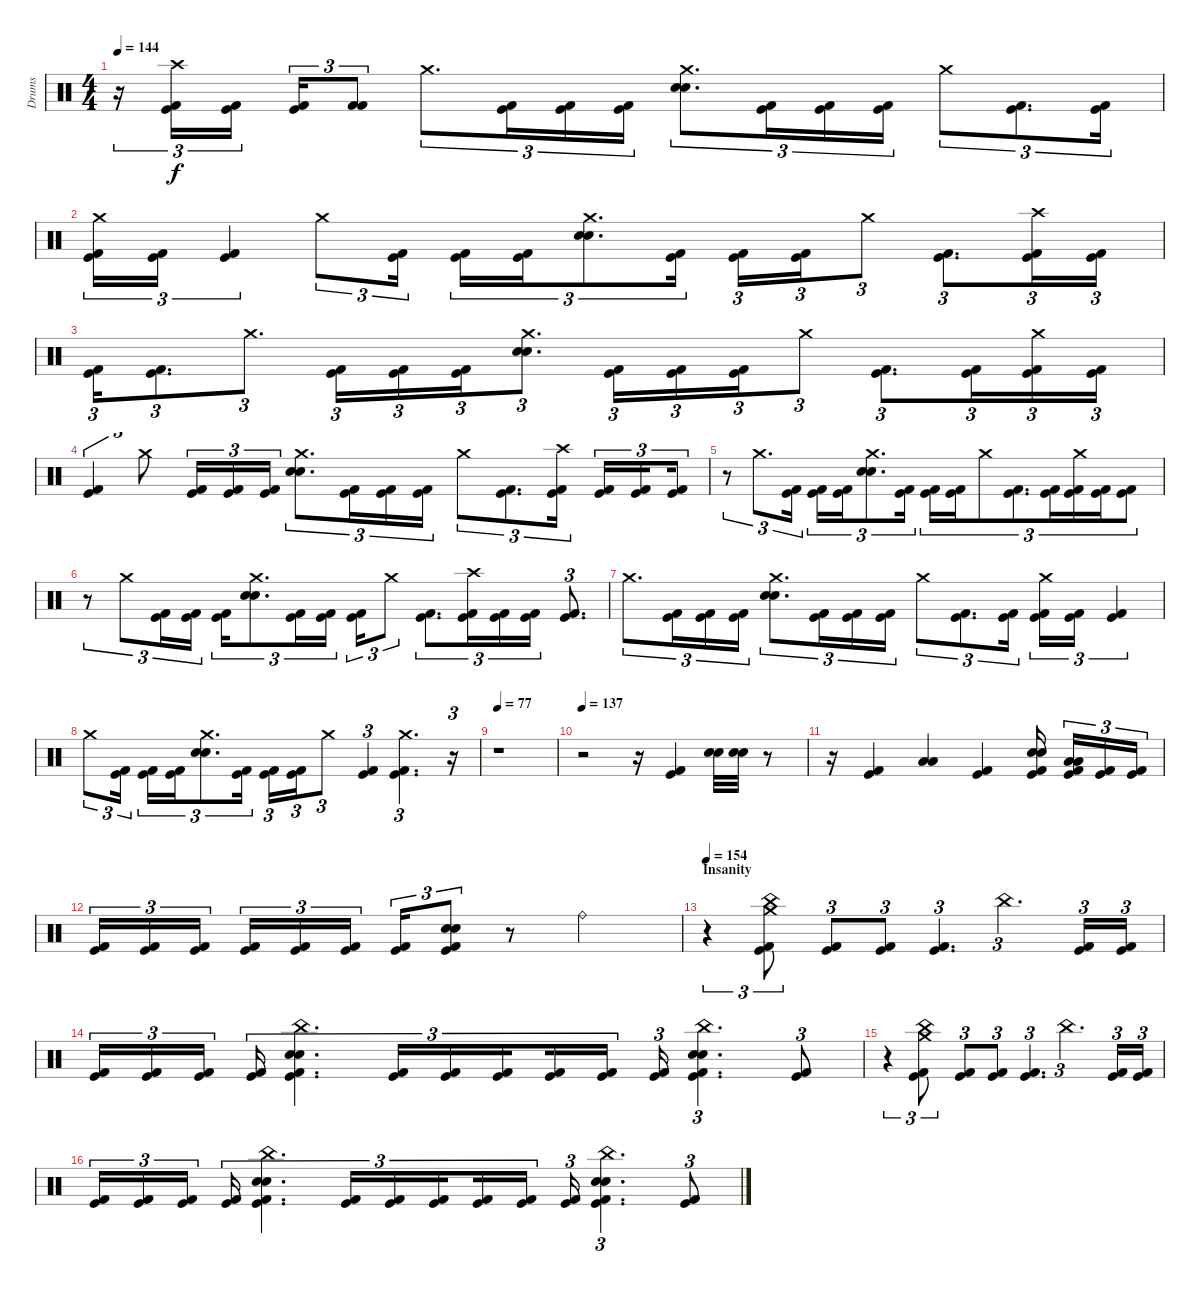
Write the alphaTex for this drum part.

\track ("Drums" "Drums") {instrument percussion}
\staff {score}
\articulation defaults
\ts (4 4)
\tempo 144
\clef neutral
\ks c
r.16{tu (3 2) dy f} ("Crash high (hit)" "Kick (hit) 2" "Kick (hit)").16{tu (3 2)} ("Kick (hit) 2" "Kick (hit)").16{tu (3 2) beam splitsecondary} ("Kick (hit) 2" "Kick (hit)").16{tu (3 2)} ("Kick (hit) 2" "Kick (hit) 2").8{tu (3 2)} "Crash medium (hit)".8{d tu (3 2)} ("Kick (hit) 2" "Kick (hit)").16{tu (3 2)} ("Kick (hit) 2" "Kick (hit)").16{tu (3 2)} ("Kick (hit) 2" "Kick (hit)").16{tu (3 2)} ("Crash medium (hit)" "Electric Snare (hit)" "Electric Snare (hit)").8{d tu (3 2)} ("Kick (hit) 2" "Kick (hit)").16{tu (3 2)} ("Kick (hit) 2" "Kick (hit)").16{tu (3 2)} ("Kick (hit) 2" "Kick (hit)").16{tu (3 2)} "Crash medium (hit)".8{tu (3 2)} ("Kick (hit) 2" "Kick (hit)").8{d tu (3 2)} ("Kick (hit) 2" "Kick (hit)").16{tu (3 2)} |
("Crash medium (hit)" "Kick (hit) 2" "Kick (hit)").16{tu (3 2)} ("Kick (hit) 2" "Kick (hit)").16{tu (3 2)} ("Kick (hit) 2" "Kick (hit)").4{tu (3 2)} "Crash medium (hit)".8{tu (3 2)} ("Kick (hit) 2" "Kick (hit)").16{tu (3 2) beam splitsecondary} ("Kick (hit) 2" "Kick (hit)").16{tu (3 2)} ("Kick (hit) 2" "Kick (hit)").16{tu (3 2)} ("Crash medium (hit)" "Electric Snare (hit)" "Electric Snare (hit)").8{d tu (3 2)} ("Kick (hit) 2" "Kick (hit)").16{tu (3 2)} ("Kick (hit) 2" "Kick (hit)").16{tu (3 2)} ("Kick (hit) 2" "Kick (hit)").16{tu (3 2)} "Crash medium (hit)".8{tu (3 2)} ("Kick (hit) 2" "Kick (hit)").8{d tu (3 2)} ("Crash high (hit)" "Kick (hit) 2" "Kick (hit)").16{tu (3 2)} ("Kick (hit) 2" "Kick (hit)").16{tu (3 2)} |
("Kick (hit) 2" "Kick (hit)").16{tu (3 2)} ("Kick (hit) 2" "Kick (hit)").8{d tu (3 2)} "Crash medium (hit)".8{d tu (3 2)} ("Kick (hit) 2" "Kick (hit)").16{tu (3 2)} ("Kick (hit) 2" "Kick (hit)").16{tu (3 2)} ("Kick (hit) 2" "Kick (hit)").16{tu (3 2)} ("Crash medium (hit)" "Electric Snare (hit)" "Electric Snare (hit)").8{d tu (3 2)} ("Kick (hit) 2" "Kick (hit)").16{tu (3 2)} ("Kick (hit) 2" "Kick (hit)").16{tu (3 2)} ("Kick (hit) 2" "Kick (hit)").16{tu (3 2)} "Crash medium (hit)".8{tu (3 2)} ("Kick (hit) 2" "Kick (hit)").8{d tu (3 2)} ("Kick (hit) 2" "Kick (hit)").16{tu (3 2)} ("Crash medium (hit)" "Kick (hit) 2" "Kick (hit)").16{tu (3 2)} ("Kick (hit) 2" "Kick (hit)").16{tu (3 2)} |
("Kick (hit) 2" "Kick (hit)").4{tu (3 2)} "Crash medium (hit)".8{tu (3 2)} ("Kick (hit) 2" "Kick (hit)").16{tu (3 2)} ("Kick (hit) 2" "Kick (hit)").16{tu (3 2)} ("Kick (hit) 2" "Kick (hit)").16{tu (3 2)} ("Crash medium (hit)" "Electric Snare (hit)" "Electric Snare (hit)").8{d tu (3 2)} ("Kick (hit) 2" "Kick (hit)").16{tu (3 2)} ("Kick (hit) 2" "Kick (hit)").16{tu (3 2)} ("Kick (hit) 2" "Kick (hit)").16{tu (3 2)} "Crash medium (hit)".8{tu (3 2)} ("Kick (hit) 2" "Kick (hit)").8{d tu (3 2)} ("Crash high (hit)" "Kick (hit) 2" "Kick (hit)").16{tu (3 2)} ("Kick (hit) 2" "Kick (hit)").16{tu (3 2)} ("Kick (hit) 2" "Kick (hit)").16{tu (3 2) beam splitsecondary} ("Kick (hit) 2" "Kick (hit)").16{tu (3 2)} |
r.8{tu (3 2)} "Crash medium (hit)".8{d tu (3 2)} ("Kick (hit) 2" "Kick (hit)").16{tu (3 2)} ("Kick (hit) 2" "Kick (hit)").16{tu (3 2)} ("Kick (hit) 2" "Kick (hit)").16{tu (3 2)} ("Crash medium (hit)" "Electric Snare (hit)" "Electric Snare (hit)").8{d tu (3 2)} ("Kick (hit) 2" "Kick (hit)").16{tu (3 2)} ("Kick (hit) 2" "Kick (hit)").16{tu (3 2)} ("Kick (hit) 2" "Kick (hit)").16{tu (3 2)} "Crash medium (hit)".8{tu (3 2)} ("Kick (hit) 2" "Kick (hit)").8{d tu (3 2)} ("Kick (hit) 2" "Kick (hit)").16{tu (3 2)} ("Crash medium (hit)" "Kick (hit) 2" "Kick (hit)").16{tu (3 2)} ("Kick (hit) 2" "Kick (hit)").16{tu (3 2)} ("Kick (hit) 2" "Kick (hit)").8{tu (3 2)} |
r.8{tu (3 2)} "Crash medium (hit)".8{tu (3 2)} ("Kick (hit) 2" "Kick (hit)").16{tu (3 2)} ("Kick (hit) 2" "Kick (hit)").16{tu (3 2)} ("Kick (hit) 2" "Kick (hit)").16{tu (3 2)} ("Crash medium (hit)" "Electric Snare (hit)" "Electric Snare (hit)").8{d tu (3 2)} ("Kick (hit) 2" "Kick (hit)").16{tu (3 2)} ("Kick (hit) 2" "Kick (hit)").16{tu (3 2)} ("Kick (hit) 2" "Kick (hit)").16{tu (3 2)} "Crash medium (hit)".8{tu (3 2)} ("Kick (hit) 2" "Kick (hit)").8{d tu (3 2)} ("Crash high (hit)" "Kick (hit) 2" "Kick (hit)").16{tu (3 2)} ("Kick (hit) 2" "Kick (hit)").16{tu (3 2)} ("Kick (hit) 2" "Kick (hit)").16{tu (3 2)} ("Kick (hit) 2" "Kick (hit)").8{d tu (3 2)} |
"Crash medium (hit)".8{d tu (3 2)} ("Kick (hit) 2" "Kick (hit)").16{tu (3 2)} ("Kick (hit) 2" "Kick (hit)").16{tu (3 2)} ("Kick (hit) 2" "Kick (hit)").16{tu (3 2)} ("Crash medium (hit)" "Electric Snare (hit)" "Electric Snare (hit)").8{d tu (3 2)} ("Kick (hit) 2" "Kick (hit)").16{tu (3 2)} ("Kick (hit) 2" "Kick (hit)").16{tu (3 2)} ("Kick (hit) 2" "Kick (hit)").16{tu (3 2)} "Crash medium (hit)".8{tu (3 2)} ("Kick (hit) 2" "Kick (hit)").8{d tu (3 2)} ("Kick (hit) 2" "Kick (hit)").16{tu (3 2)} ("Crash medium (hit)" "Kick (hit) 2" "Kick (hit)").16{tu (3 2)} ("Kick (hit) 2" "Kick (hit)").16{tu (3 2)} ("Kick (hit) 2" "Kick (hit)").4{tu (3 2)} |
"Crash medium (hit)".8{tu (3 2)} ("Kick (hit) 2" "Kick (hit)").16{tu (3 2) beam splitsecondary} ("Kick (hit) 2" "Kick (hit)").16{tu (3 2)} ("Kick (hit) 2" "Kick (hit)").16{tu (3 2)} ("Crash medium (hit)" "Electric Snare (hit)" "Electric Snare (hit)").8{d tu (3 2)} ("Kick (hit) 2" "Kick (hit)").16{tu (3 2)} ("Kick (hit) 2" "Kick (hit)").16{tu (3 2)} ("Kick (hit) 2" "Kick (hit)").16{tu (3 2)} "Crash medium (hit)".8{tu (3 2)} ("Kick (hit) 2" "Kick (hit)").4{tu (3 2)} ("Crash medium (hit)" "Kick (hit) 2" "Kick (hit)").4{d tu (3 2)} r.16{tu (3 2)} |
\tempo 77
r.1 |
\tempo 137
r.2 r.16 ("Kick (hit) 2" "Kick (hit)").4 ("Electric Snare (hit)" "Electric Snare (hit)").32 ("Electric Snare (hit)" "Electric Snare (hit)").32 r.8 |
r.16 ("Kick (hit) 2" "Kick (hit)").4 ("Low Tom (hit)" "Low Tom (hit)").4 ("Kick (hit) 2" "Kick (hit)").4 ("Electric Snare (hit)" "Electric Snare (hit)" "Kick (hit) 2" "Kick (hit)").16{beam splitsecondary} ("Low Tom (hit)" "Low Tom (hit)" "Kick (hit) 2" "Kick (hit)").16{tu (3 2)} ("Kick (hit) 2" "Kick (hit)").16{tu (3 2)} ("Kick (hit) 2" "Kick (hit)").16{tu (3 2)} |
("Kick (hit) 2" "Kick (hit)").16{tu (3 2)} ("Kick (hit) 2" "Kick (hit)").16{tu (3 2)} ("Kick (hit) 2" "Kick (hit)").16{tu (3 2) beam splitsecondary} ("Kick (hit) 2" "Kick (hit)").16{tu (3 2)} ("Kick (hit) 2" "Kick (hit)").16{tu (3 2)} ("Kick (hit) 2" "Kick (hit)").16{tu (3 2)} ("Kick (hit) 2" "Kick (hit)").16{tu (3 2)} ("Electric Snare (hit)" "Electric Snare (hit)" "Kick (hit) 2" "Kick (hit)").8{tu (3 2)} r.8 "Ride (bell)".2 |
\section ("" "Insanity")
\tempo 154
r.4{tu (3 2)} ("China (hit)" "Crash medium (hit)" "Kick (hit) 2" "Kick (hit)").8{tu (3 2)} ("Kick (hit) 2" "Kick (hit)").8{tu (3 2)} ("Kick (hit) 2" "Kick (hit)").8{tu (3 2)} ("Kick (hit) 2" "Kick (hit)").4{d tu (3 2)} "China (hit)".4{d tu (3 2)} ("Kick (hit) 2" "Kick (hit)").16{tu (3 2)} ("Kick (hit) 2" "Kick (hit)").16{tu (3 2)} |
("Kick (hit) 2" "Kick (hit)").16{tu (3 2)} ("Kick (hit) 2" "Kick (hit)").16{tu (3 2)} ("Kick (hit) 2" "Kick (hit)").16{tu (3 2) beam splitsecondary} ("Kick (hit) 2" "Kick (hit)").16{tu (3 2)} ("China (hit)" "Electric Snare (hit)" "Electric Snare (hit)" "Kick (hit) 2" "Kick (hit)").4{d tu (3 2)} ("Kick (hit) 2" "Kick (hit)").16{tu (3 2)} ("Kick (hit) 2" "Kick (hit)").16{tu (3 2)} ("Kick (hit) 2" "Kick (hit)").16{tu (3 2) beam splitsecondary} ("Kick (hit) 2" "Kick (hit)").16{tu (3 2)} ("Kick (hit) 2" "Kick (hit)").16{tu (3 2)} ("Kick (hit) 2" "Kick (hit)").16{tu (3 2)} ("China (hit)" "Electric Snare (hit)" "Electric Snare (hit)" "Kick (hit) 2" "Kick (hit)").4{d tu (3 2)} ("Kick (hit) 2" "Kick (hit)").8{tu (3 2)} |
r.4{tu (3 2)} ("China (hit)" "Crash medium (hit)" "Kick (hit) 2" "Kick (hit)").8{tu (3 2)} ("Kick (hit) 2" "Kick (hit)").8{tu (3 2)} ("Kick (hit) 2" "Kick (hit)").8{tu (3 2)} ("Kick (hit) 2" "Kick (hit)").4{d tu (3 2)} "China (hit)".4{d tu (3 2)} ("Kick (hit) 2" "Kick (hit)").16{tu (3 2)} ("Kick (hit) 2" "Kick (hit)").16{tu (3 2)} |
("Kick (hit) 2" "Kick (hit)").16{tu (3 2)} ("Kick (hit) 2" "Kick (hit)").16{tu (3 2)} ("Kick (hit) 2" "Kick (hit)").16{tu (3 2) beam splitsecondary} ("Kick (hit) 2" "Kick (hit)").16{tu (3 2)} ("China (hit)" "Electric Snare (hit)" "Electric Snare (hit)" "Kick (hit) 2" "Kick (hit)").4{d tu (3 2)} ("Kick (hit) 2" "Kick (hit)").16{tu (3 2)} ("Kick (hit) 2" "Kick (hit)").16{tu (3 2)} ("Kick (hit) 2" "Kick (hit)").16{tu (3 2) beam splitsecondary} ("Kick (hit) 2" "Kick (hit)").16{tu (3 2)} ("Kick (hit) 2" "Kick (hit)").16{tu (3 2)} ("Kick (hit) 2" "Kick (hit)").16{tu (3 2)} ("China (hit)" "Electric Snare (hit)" "Electric Snare (hit)" "Kick (hit) 2" "Kick (hit)").4{d tu (3 2)} ("Kick (hit) 2" "Kick (hit)").8{tu (3 2)}
